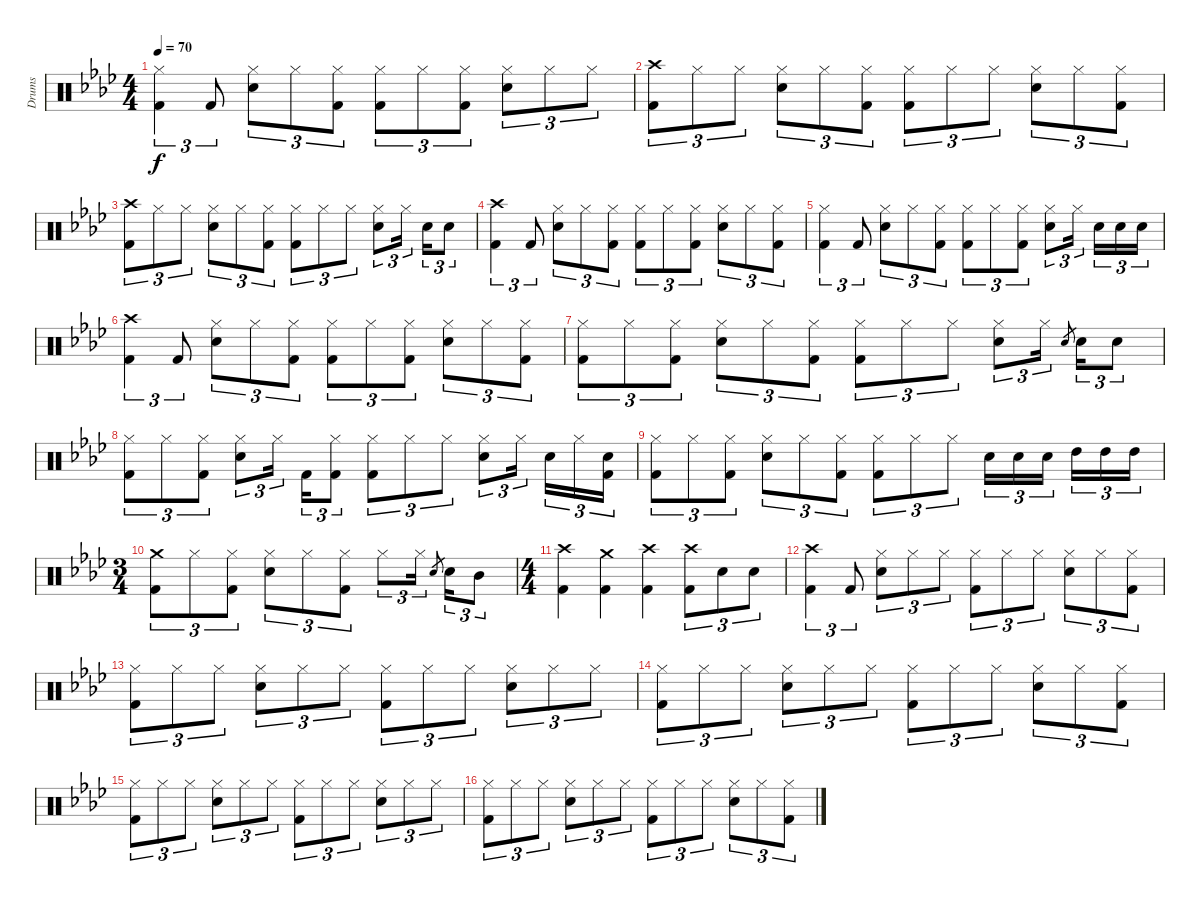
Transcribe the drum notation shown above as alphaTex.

\track ("Drums" "Drums") {instrument percussion}
\staff {score}
\articulation defaults
\ts (4 4)
\tempo 70
\clef neutral
\ks fminor
("Kick (hit) 2" "Hi-Hat (closed)").4{tu (3 2) dy f} "Kick (hit) 2".8{tu (3 2)} ("Snare (hit) 2" "Hi-Hat (closed)").8{tu (3 2)} "Hi-Hat (closed)".8{tu (3 2)} ("Kick (hit) 2" "Hi-Hat (closed)").8{tu (3 2)} ("Kick (hit) 2" "Hi-Hat (closed)").8{tu (3 2)} "Hi-Hat (closed)".8{tu (3 2)} ("Kick (hit) 2" "Hi-Hat (closed)").8{tu (3 2)} ("Snare (hit) 2" "Hi-Hat (closed)").8{tu (3 2)} "Hi-Hat (closed)".8{tu (3 2)} "Hi-Hat (closed)".8{tu (3 2)} |
("Kick (hit) 2" "Crash high (hit)").8{tu (3 2)} "Hi-Hat (closed)".8{tu (3 2)} "Hi-Hat (closed)".8{tu (3 2)} ("Snare (hit) 2" "Hi-Hat (closed)").8{tu (3 2)} "Hi-Hat (closed)".8{tu (3 2)} ("Kick (hit) 2" "Hi-Hat (closed)").8{tu (3 2)} ("Kick (hit) 2" "Hi-Hat (closed)").8{tu (3 2)} "Hi-Hat (closed)".8{tu (3 2)} "Hi-Hat (closed)".8{tu (3 2)} ("Snare (hit) 2" "Hi-Hat (closed)").8{tu (3 2)} "Hi-Hat (closed)".8{tu (3 2)} ("Kick (hit) 2" "Hi-Hat (closed)").8{tu (3 2)} |
("Kick (hit) 2" "Crash high (hit)").8{tu (3 2)} "Hi-Hat (closed)".8{tu (3 2)} "Hi-Hat (closed)".8{tu (3 2)} ("Snare (hit) 2" "Hi-Hat (closed)").8{tu (3 2)} "Hi-Hat (closed)".8{tu (3 2)} ("Kick (hit) 2" "Hi-Hat (closed)").8{tu (3 2)} ("Kick (hit) 2" "Hi-Hat (closed)").8{tu (3 2)} "Hi-Hat (closed)".8{tu (3 2)} "Hi-Hat (closed)".8{tu (3 2)} ("Snare (hit) 2" "Hi-Hat (closed)").8{tu (3 2)} "Hi-Hat (closed)".16{tu (3 2)} "Snare (hit) 2".16{tu (3 2)} "Snare (hit) 2".8{tu (3 2)} |
("Kick (hit) 2" "Crash high (hit)").4{tu (3 2)} "Kick (hit) 2".8{tu (3 2)} ("Snare (hit) 2" "Hi-Hat (closed)").8{tu (3 2)} "Hi-Hat (closed)".8{tu (3 2)} ("Kick (hit) 2" "Hi-Hat (closed)").8{tu (3 2)} ("Kick (hit) 2" "Hi-Hat (closed)").8{tu (3 2)} "Hi-Hat (closed)".8{tu (3 2)} ("Kick (hit) 2" "Hi-Hat (closed)").8{tu (3 2)} ("Snare (hit) 2" "Hi-Hat (closed)").8{tu (3 2)} "Hi-Hat (closed)".8{tu (3 2)} ("Kick (hit) 2" "Hi-Hat (closed)").8{tu (3 2)} |
("Kick (hit) 2" "Hi-Hat (closed)").4{tu (3 2)} "Kick (hit) 2".8{tu (3 2)} ("Snare (hit) 2" "Hi-Hat (closed)").8{tu (3 2)} "Hi-Hat (closed)".8{tu (3 2)} ("Kick (hit) 2" "Hi-Hat (closed)").8{tu (3 2)} ("Kick (hit) 2" "Hi-Hat (closed)").8{tu (3 2)} "Hi-Hat (closed)".8{tu (3 2)} ("Kick (hit) 2" "Hi-Hat (closed)").8{tu (3 2)} ("Snare (hit) 2" "Hi-Hat (closed)").8{tu (3 2)} "Hi-Hat (closed)".16{tu (3 2)} "Snare (hit) 2".16{tu (3 2)} "Snare (hit) 2".16{tu (3 2)} "Snare (hit) 2".16{tu (3 2)} |
("Kick (hit) 2" "Crash high (hit)").4{tu (3 2)} "Kick (hit) 2".8{tu (3 2)} ("Snare (hit) 2" "Hi-Hat (closed)").8{tu (3 2)} "Hi-Hat (closed)".8{tu (3 2)} ("Kick (hit) 2" "Hi-Hat (closed)").8{tu (3 2)} ("Kick (hit) 2" "Hi-Hat (closed)").8{tu (3 2)} "Hi-Hat (closed)".8{tu (3 2)} ("Kick (hit) 2" "Hi-Hat (closed)").8{tu (3 2)} ("Snare (hit) 2" "Hi-Hat (closed)").8{tu (3 2)} "Hi-Hat (closed)".8{tu (3 2)} ("Kick (hit) 2" "Hi-Hat (closed)").8{tu (3 2)} |
("Kick (hit) 2" "Hi-Hat (closed)").8{tu (3 2)} "Hi-Hat (closed)".8{tu (3 2)} ("Kick (hit) 2" "Hi-Hat (closed)").8{tu (3 2)} ("Snare (hit) 2" "Hi-Hat (closed)").8{tu (3 2)} "Hi-Hat (closed)".8{tu (3 2)} ("Kick (hit) 2" "Hi-Hat (closed)").8{tu (3 2)} ("Kick (hit) 2" "Hi-Hat (closed)").8{tu (3 2)} "Hi-Hat (closed)".8{tu (3 2)} "Hi-Hat (closed)".8{tu (3 2)} ("Snare (hit) 2" "Hi-Hat (closed)").8{tu (3 2)} "Hi-Hat (closed)".16{tu (3 2)} "Snare (hit) 2".8{gr} "Snare (hit) 2".16{tu (3 2)} "Snare (hit) 2".8{tu (3 2)} |
("Kick (hit) 2" "Hi-Hat (closed)").8{tu (3 2)} "Hi-Hat (closed)".8{tu (3 2)} ("Kick (hit) 2" "Hi-Hat (closed)").8{tu (3 2)} ("Snare (hit) 2" "Hi-Hat (closed)").8{tu (3 2)} "Hi-Hat (closed)".16{tu (3 2)} "Kick (hit) 2".16{tu (3 2)} ("Kick (hit) 2" "Hi-Hat (closed)").8{tu (3 2)} ("Kick (hit) 2" "Hi-Hat (closed)").8{tu (3 2)} "Hi-Hat (closed)".8{tu (3 2)} "Hi-Hat (closed)".8{tu (3 2)} ("Snare (hit) 2" "Hi-Hat (closed)").8{tu (3 2)} "Hi-Hat (closed)".16{tu (3 2)} "Snare (hit) 2".16{tu (3 2)} "Hi-Hat (closed)".16{tu (3 2)} ("Kick (hit) 2" "Snare (hit) 2").16{tu (3 2)} |
("Kick (hit) 2" "Hi-Hat (closed)").8{tu (3 2)} "Hi-Hat (closed)".8{tu (3 2)} ("Kick (hit) 2" "Hi-Hat (closed)").8{tu (3 2)} ("Snare (hit) 2" "Hi-Hat (closed)").8{tu (3 2)} "Hi-Hat (closed)".8{tu (3 2)} ("Kick (hit) 2" "Hi-Hat (closed)").8{tu (3 2)} ("Kick (hit) 2" "Hi-Hat (closed)").8{tu (3 2)} "Hi-Hat (closed)".8{tu (3 2)} "Hi-Hat (closed)".8{tu (3 2)} "Snare (hit) 2".16{tu (3 2)} "Snare (hit) 2".16{tu (3 2)} "Snare (hit) 2".16{tu (3 2)} "High Tom (hit)".16{tu (3 2)} "High Tom (hit)".16{tu (3 2)} "High Tom (hit)".16{tu (3 2)} |
\ts (3 4)
("Kick (hit) 2" "Crash medium (hit)").8{tu (3 2)} "Hi-Hat (closed)".8{tu (3 2)} ("Kick (hit) 2" "Hi-Hat (closed)").8{tu (3 2)} ("Snare (hit) 2" "Hi-Hat (closed)").8{tu (3 2)} "Hi-Hat (closed)".8{tu (3 2)} ("Kick (hit) 2" "Hi-Hat (closed)").8{tu (3 2)} "Hi-Hat (closed)".8{tu (3 2)} "Hi-Hat (closed)".16{tu (3 2)} "Snare (hit) 2".8{gr} "Snare (hit) 2".16{tu (3 2)} "Mid Tom (hit)".8{tu (3 2)} |
\ts (4 4)
("Kick (hit) 2" "Crash high (hit)").4 ("Kick (hit) 2" "Crash medium (hit)").4 ("Kick (hit) 2" "Crash high (hit)").4 ("Kick (hit) 2" "Crash high (hit)").8{tu (3 2)} "Snare (hit) 2".8{tu (3 2)} "Snare (hit) 2".8{tu (3 2)} |
("Kick (hit) 2" "Crash high (hit)").4{tu (3 2)} "Kick (hit) 2".8{tu (3 2)} ("Snare (hit) 2" "Hi-Hat (closed)").8{tu (3 2)} "Hi-Hat (closed)".8{tu (3 2)} "Hi-Hat (closed)".8{tu (3 2)} ("Kick (hit) 2" "Hi-Hat (closed)").8{tu (3 2)} "Hi-Hat (closed)".8{tu (3 2)} "Hi-Hat (closed)".8{tu (3 2)} ("Snare (hit) 2" "Hi-Hat (closed)").8{tu (3 2)} "Hi-Hat (closed)".8{tu (3 2)} ("Kick (hit) 2" "Hi-Hat (closed)").8{tu (3 2)} |
("Kick (hit) 2" "Hi-Hat (closed)").8{tu (3 2)} "Hi-Hat (closed)".8{tu (3 2)} "Hi-Hat (closed)".8{tu (3 2)} ("Snare (hit) 2" "Hi-Hat (closed)").8{tu (3 2)} "Hi-Hat (closed)".8{tu (3 2)} "Hi-Hat (closed)".8{tu (3 2)} ("Kick (hit) 2" "Hi-Hat (closed)").8{tu (3 2)} "Hi-Hat (closed)".8{tu (3 2)} "Hi-Hat (closed)".8{tu (3 2)} ("Snare (hit) 2" "Hi-Hat (closed)").8{tu (3 2)} "Hi-Hat (closed)".8{tu (3 2)} "Hi-Hat (closed)".8{tu (3 2)} |
("Kick (hit) 2" "Hi-Hat (closed)").8{tu (3 2)} "Hi-Hat (closed)".8{tu (3 2)} "Hi-Hat (closed)".8{tu (3 2)} ("Snare (hit) 2" "Hi-Hat (closed)").8{tu (3 2)} "Hi-Hat (closed)".8{tu (3 2)} "Hi-Hat (closed)".8{tu (3 2)} ("Kick (hit) 2" "Hi-Hat (closed)").8{tu (3 2)} "Hi-Hat (closed)".8{tu (3 2)} "Hi-Hat (closed)".8{tu (3 2)} ("Snare (hit) 2" "Hi-Hat (closed)").8{tu (3 2)} "Hi-Hat (closed)".8{tu (3 2)} ("Kick (hit) 2" "Hi-Hat (closed)").8{tu (3 2)} |
("Kick (hit) 2" "Hi-Hat (closed)").8{tu (3 2)} "Hi-Hat (closed)".8{tu (3 2)} "Hi-Hat (closed)".8{tu (3 2)} ("Snare (hit) 2" "Hi-Hat (closed)").8{tu (3 2)} "Hi-Hat (closed)".8{tu (3 2)} "Hi-Hat (closed)".8{tu (3 2)} ("Kick (hit) 2" "Hi-Hat (closed)").8{tu (3 2)} "Hi-Hat (closed)".8{tu (3 2)} "Hi-Hat (closed)".8{tu (3 2)} ("Snare (hit) 2" "Hi-Hat (closed)").8{tu (3 2)} "Hi-Hat (closed)".8{tu (3 2)} "Hi-Hat (closed)".8{tu (3 2)} |
("Kick (hit) 2" "Hi-Hat (closed)").8{tu (3 2)} "Hi-Hat (closed)".8{tu (3 2)} "Hi-Hat (closed)".8{tu (3 2)} ("Snare (hit) 2" "Hi-Hat (closed)").8{tu (3 2)} "Hi-Hat (closed)".8{tu (3 2)} "Hi-Hat (closed)".8{tu (3 2)} ("Kick (hit) 2" "Hi-Hat (closed)").8{tu (3 2)} "Hi-Hat (closed)".8{tu (3 2)} "Hi-Hat (closed)".8{tu (3 2)} ("Snare (hit) 2" "Hi-Hat (closed)").8{tu (3 2)} "Hi-Hat (closed)".8{tu (3 2)} ("Kick (hit) 2" "Hi-Hat (closed)").8{tu (3 2)}
